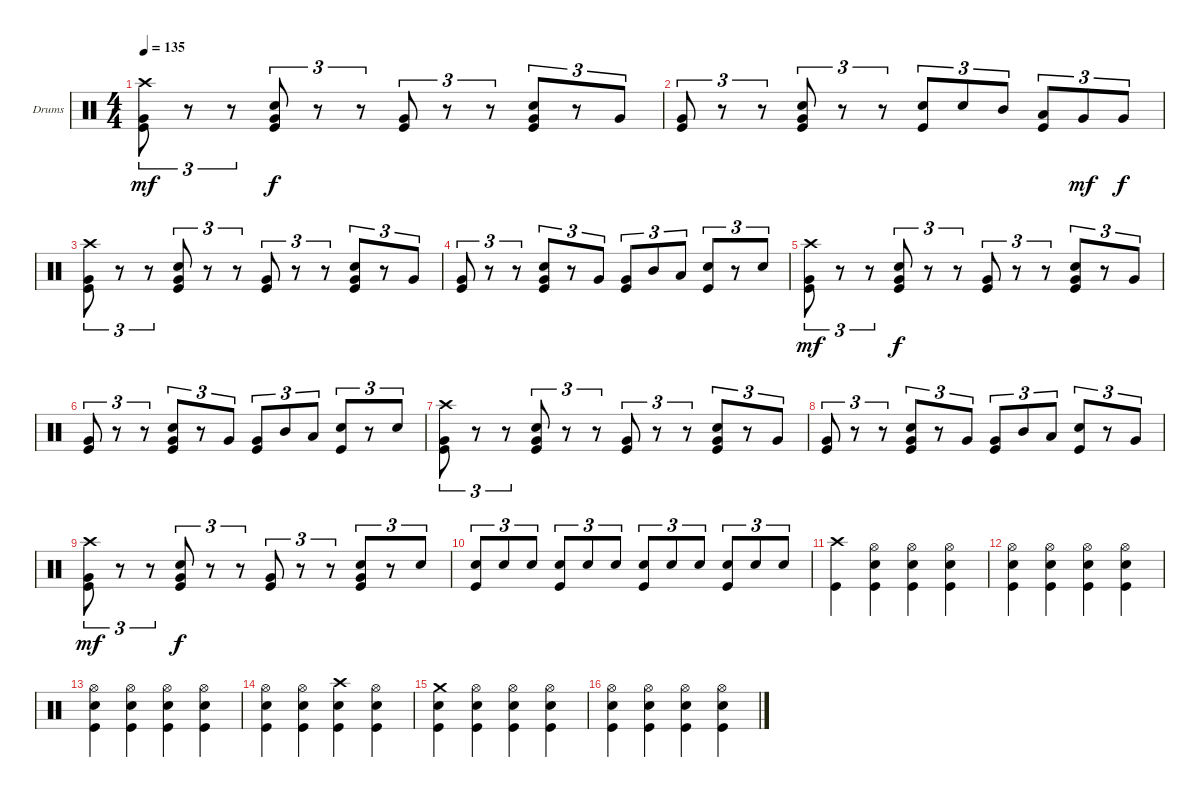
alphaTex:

\bracketExtendMode groupsimilarinstruments
\firstSystemTrackNameOrientation horizontal
\otherSystemsTrackNameOrientation horizontal
\track ("Drumkit (Christoph)" "Drums") {instrument percussion}
\staff {score}
\articulation defaults
\ts (4 4)
\tempo 135
\clef neutral
\ks c
("Crash high (hit)" "Very Low Tom (hit)" "Kick (hit)").8{tu (3 2) dy mf} r.8{tu (3 2)} r.8{tu (3 2)} ("Snare (hit) 2" "Very Low Tom (hit)" "Kick (hit)").8{tu (3 2) dy f} r.8{tu (3 2)} r.8{tu (3 2)} ("Very Low Tom (hit)" "Kick (hit)").8{tu (3 2)} r.8{tu (3 2)} r.8{tu (3 2)} ("Snare (hit) 2" "Very Low Tom (hit)" "Kick (hit)").8{tu (3 2)} r.8{tu (3 2)} "Very Low Tom (hit)".8{tu (3 2)} |
("Very Low Tom (hit)" "Kick (hit)").8{tu (3 2)} r.8{tu (3 2)} r.8{tu (3 2)} ("Snare (hit) 2" "Very Low Tom (hit)" "Kick (hit)").8{tu (3 2)} r.8{tu (3 2)} r.8{tu (3 2)} ("Snare (hit) 2" "Kick (hit)").8{tu (3 2)} "Snare (hit) 2".8{tu (3 2)} "Mid Tom (hit)".8{tu (3 2)} ("Low Tom (hit)" "Kick (hit)").8{tu (3 2)} "Very Low Tom (hit)".8{tu (3 2) dy mf} "Very Low Tom (hit)".8{tu (3 2) dy f} |
("Crash high (hit)" "Very Low Tom (hit)" "Kick (hit)").8{tu (3 2)} r.8{tu (3 2)} r.8{tu (3 2)} ("Snare (hit) 2" "Very Low Tom (hit)" "Kick (hit)").8{tu (3 2)} r.8{tu (3 2)} r.8{tu (3 2)} ("Very Low Tom (hit)" "Kick (hit)").8{tu (3 2)} r.8{tu (3 2)} r.8{tu (3 2)} ("Snare (hit) 2" "Very Low Tom (hit)" "Kick (hit)").8{tu (3 2)} r.8{tu (3 2)} "Very Low Tom (hit)".8{tu (3 2)} |
("Very Low Tom (hit)" "Kick (hit)").8{tu (3 2)} r.8{tu (3 2)} r.8{tu (3 2)} ("Snare (hit) 2" "Very Low Tom (hit)" "Kick (hit)").8{tu (3 2)} r.8{tu (3 2)} "Very Low Tom (hit)".8{tu (3 2)} ("Very Low Tom (hit)" "Kick (hit)").8{tu (3 2)} "Mid Tom (hit)".8{tu (3 2)} "Low Tom (hit)".8{tu (3 2)} ("Snare (hit) 2" "Kick (hit)").8{tu (3 2)} r.8{tu (3 2)} "Snare (hit) 2".8{tu (3 2)} |
("Crash high (hit)" "Very Low Tom (hit)" "Kick (hit)").8{tu (3 2) dy mf} r.8{tu (3 2)} r.8{tu (3 2)} ("Snare (hit) 2" "Very Low Tom (hit)" "Kick (hit)").8{tu (3 2) dy f} r.8{tu (3 2)} r.8{tu (3 2)} ("Very Low Tom (hit)" "Kick (hit)").8{tu (3 2)} r.8{tu (3 2)} r.8{tu (3 2)} ("Snare (hit) 2" "Very Low Tom (hit)" "Kick (hit)").8{tu (3 2)} r.8{tu (3 2)} "Very Low Tom (hit)".8{tu (3 2)} |
("Very Low Tom (hit)" "Kick (hit)").8{tu (3 2)} r.8{tu (3 2)} r.8{tu (3 2)} ("Snare (hit) 2" "Very Low Tom (hit)" "Kick (hit)").8{tu (3 2)} r.8{tu (3 2)} "Very Low Tom (hit)".8{tu (3 2)} ("Very Low Tom (hit)" "Kick (hit)").8{tu (3 2)} "Mid Tom (hit)".8{tu (3 2)} "Low Tom (hit)".8{tu (3 2)} ("Snare (hit) 2" "Kick (hit)").8{tu (3 2)} r.8{tu (3 2)} "Snare (hit) 2".8{tu (3 2)} |
("Crash high (hit)" "Very Low Tom (hit)" "Kick (hit)").8{tu (3 2)} r.8{tu (3 2)} r.8{tu (3 2)} ("Snare (hit) 2" "Very Low Tom (hit)" "Kick (hit)").8{tu (3 2)} r.8{tu (3 2)} r.8{tu (3 2)} ("Very Low Tom (hit)" "Kick (hit)").8{tu (3 2)} r.8{tu (3 2)} r.8{tu (3 2)} ("Snare (hit) 2" "Very Low Tom (hit)" "Kick (hit)").8{tu (3 2)} r.8{tu (3 2)} "Very Low Tom (hit)".8{tu (3 2)} |
("Very Low Tom (hit)" "Kick (hit)").8{tu (3 2)} r.8{tu (3 2)} r.8{tu (3 2)} ("Snare (hit) 2" "Very Low Tom (hit)" "Kick (hit)").8{tu (3 2)} r.8{tu (3 2)} "Very Low Tom (hit)".8{tu (3 2)} ("Very Low Tom (hit)" "Kick (hit)").8{tu (3 2)} "Mid Tom (hit)".8{tu (3 2)} "Low Tom (hit)".8{tu (3 2)} ("Snare (hit) 2" "Kick (hit)").8{tu (3 2)} r.8{tu (3 2)} "Very Low Tom (hit)".8{tu (3 2)} |
("Crash high (hit)" "Very Low Tom (hit)" "Kick (hit)").8{tu (3 2) dy mf} r.8{tu (3 2)} r.8{tu (3 2)} ("Snare (hit) 2" "Very Low Tom (hit)" "Kick (hit)").8{tu (3 2) dy f} r.8{tu (3 2)} r.8{tu (3 2)} ("Very Low Tom (hit)" "Kick (hit)").8{tu (3 2)} r.8{tu (3 2)} r.8{tu (3 2)} ("Snare (hit) 2" "Very Low Tom (hit)" "Kick (hit)").8{tu (3 2)} r.8{tu (3 2)} "Snare (hit) 2".8{tu (3 2)} |
("Snare (hit) 2" "Kick (hit)").8{tu (3 2)} "Snare (hit) 2".8{tu (3 2)} "Snare (hit) 2".8{tu (3 2)} ("Snare (hit) 2" "Kick (hit)").8{tu (3 2)} "Snare (hit) 2".8{tu (3 2)} "Snare (hit) 2".8{tu (3 2)} ("Snare (hit) 2" "Kick (hit)").8{tu (3 2)} "Snare (hit) 2".8{tu (3 2)} "Snare (hit) 2".8{tu (3 2)} ("Snare (hit) 2" "Kick (hit)").8{tu (3 2)} "Snare (hit) 2".8{tu (3 2)} "Snare (hit) 2".8{tu (3 2)} |
("Crash high (hit)" "Kick (hit)").4 ("Hi-Hat (open)" "Snare (hit) 2" "Kick (hit)").4 ("Hi-Hat (open)" "Snare (hit) 2" "Kick (hit)").4 ("Hi-Hat (open)" "Snare (hit) 2" "Kick (hit)").4 |
("Hi-Hat (open)" "Snare (hit) 2" "Kick (hit)").4 ("Hi-Hat (open)" "Snare (hit) 2" "Kick (hit)").4 ("Hi-Hat (open)" "Snare (hit) 2" "Kick (hit)").4 ("Hi-Hat (open)" "Snare (hit) 2" "Kick (hit)").4 |
("Hi-Hat (open)" "Snare (hit) 2" "Kick (hit)").4 ("Hi-Hat (open)" "Snare (hit) 2" "Kick (hit)").4 ("Hi-Hat (open)" "Snare (hit) 2" "Kick (hit)").4 ("Hi-Hat (open)" "Snare (hit) 2" "Kick (hit)").4 |
("Hi-Hat (open)" "Snare (hit) 2" "Kick (hit)").4 ("Hi-Hat (open)" "Snare (hit) 2" "Kick (hit)").4 ("Crash high (hit)" "Snare (hit) 2" "Kick (hit)").4 ("Hi-Hat (open)" "Snare (hit) 2" "Kick (hit)").4 |
("Crash medium (hit)" "Snare (hit) 2" "Kick (hit)").4 ("Hi-Hat (open)" "Snare (hit) 2" "Kick (hit)").4 ("Hi-Hat (open)" "Snare (hit) 2" "Kick (hit)").4 ("Hi-Hat (open)" "Snare (hit) 2" "Kick (hit)").4 |
("Hi-Hat (open)" "Snare (hit) 2" "Kick (hit)").4 ("Hi-Hat (open)" "Snare (hit) 2" "Kick (hit)").4 ("Hi-Hat (open)" "Snare (hit) 2" "Kick (hit)").4 ("Hi-Hat (open)" "Snare (hit) 2" "Kick (hit)").4
